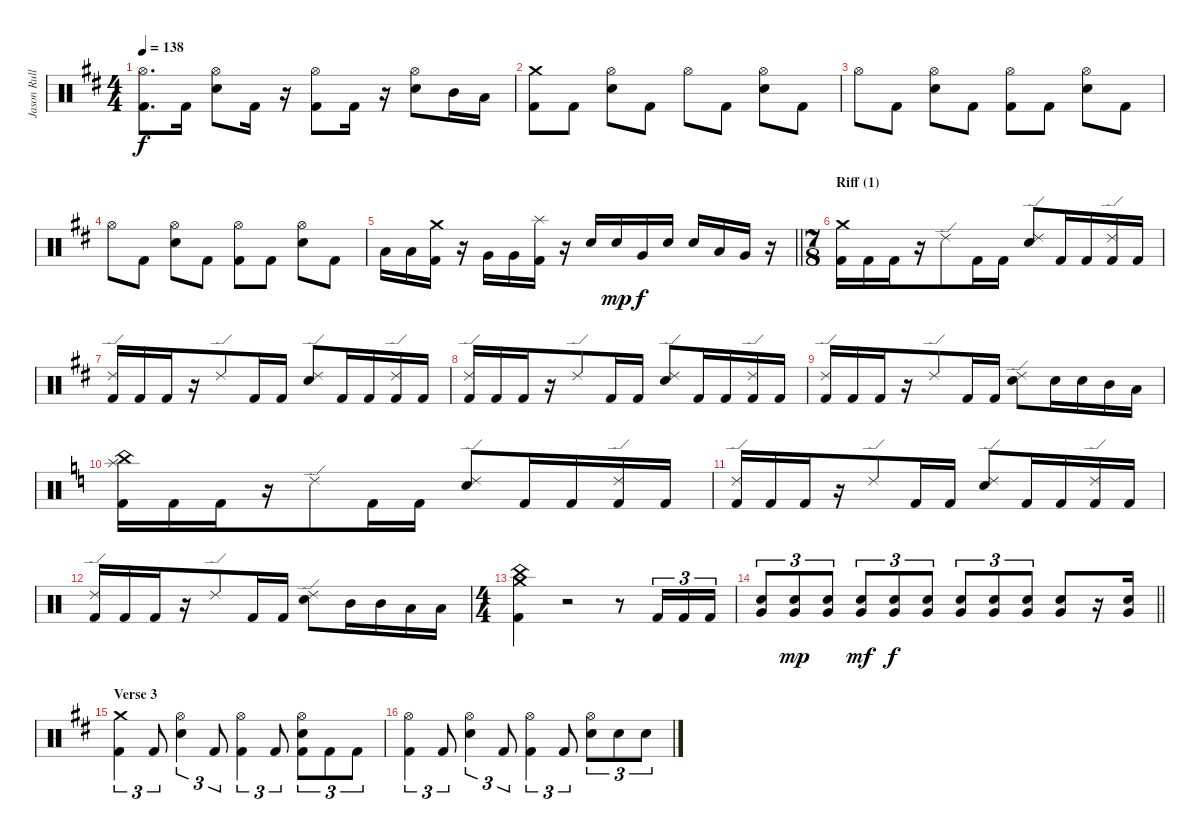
\track ("Jason Rullo (drums)" "Jason Rull") {instrument percussion}
\staff {score}
\articulation defaults
\ts (4 4)
\tempo 138
\clef neutral
\ks bminor
("Hi-Hat (open)" "Kick (hit) 2").8{d dy f} "Kick (hit) 2".16 ("Hi-Hat (open)" "Electric Snare (hit)").8 "Kick (hit) 2".16 r.16 ("Hi-Hat (open)" "Kick (hit) 2").8 "Kick (hit) 2".16 r.16 ("Hi-Hat (open)" "Electric Snare (hit)").8 "Mid Tom (hit)".16 "Low Tom (hit)".16 |
("Crash medium (hit)" "Kick (hit) 2").8 "Kick (hit) 2".8 ("Hi-Hat (open)" "Electric Snare (hit)").8 "Kick (hit) 2".8 "Hi-Hat (open)".8 "Kick (hit) 2".8 ("Hi-Hat (open)" "Electric Snare (hit)").8 "Kick (hit) 2".8 |
"Hi-Hat (open)".8 "Kick (hit) 2".8 ("Hi-Hat (open)" "Electric Snare (hit)").8 "Kick (hit) 2".8 ("Kick (hit) 2" "Hi-Hat (open)").8 "Kick (hit) 2".8 ("Hi-Hat (open)" "Electric Snare (hit)").8 "Kick (hit) 2".8 |
"Hi-Hat (open)".8 "Kick (hit) 2".8 ("Hi-Hat (open)" "Electric Snare (hit)").8 "Kick (hit) 2".8 ("Kick (hit) 2" "Hi-Hat (open)").8 "Kick (hit) 2".8 ("Hi-Hat (open)" "Electric Snare (hit)").8 "Kick (hit) 2".8 |
\barLineRight lightlight "Low Tom (hit)".16 "Low Tom (hit)".16
("Crash medium (hit)" "Kick (hit) 2").16 r.16 "Very Low Tom (hit)".16 "Very Low Tom (hit)".16 ("Splash (hit)" "Kick (hit) 2").16 r.16 "Electric Snare (hit)".16 "Electric Snare (hit)".16{dy mp} "Very Low Tom (hit)".16{dy f} "Electric Snare (hit)".16 "Electric Snare (hit)".16 "Low Tom (hit)".16 "Very Low Tom (hit)".16 r.16 |
\ts (7 8)
\section ("" "Riff (1)")
("Crash medium (hit)" "Kick (hit) 2").16 "Kick (hit) 2".16 "Kick (hit) 2".16 r.16 "Ride (edge) 2".8 "Kick (hit) 2".16 "Kick (hit) 2".16 ("Ride (edge) 2" "Electric Snare (hit)").8 "Kick (hit) 2".16 "Kick (hit) 2".16 ("Ride (edge) 2" "Kick (hit) 2").16 "Kick (hit) 2".16 |
("Ride (edge) 2" "Kick (hit) 2").16 "Kick (hit) 2".16 "Kick (hit) 2".16 r.16 "Ride (edge) 2".8 "Kick (hit) 2".16 "Kick (hit) 2".16 ("Ride (edge) 2" "Electric Snare (hit)").8 "Kick (hit) 2".16 "Kick (hit) 2".16 ("Ride (edge) 2" "Kick (hit) 2").16 "Kick (hit) 2".16 |
("Ride (edge) 2" "Kick (hit) 2").16 "Kick (hit) 2".16 "Kick (hit) 2".16 r.16 "Ride (edge) 2".8 "Kick (hit) 2".16 "Kick (hit) 2".16 ("Ride (edge) 2" "Electric Snare (hit)").8 "Kick (hit) 2".16 "Kick (hit) 2".16 ("Ride (edge) 2" "Kick (hit) 2").16 "Kick (hit) 2".16 |
("Ride (edge) 2" "Kick (hit) 2").16 "Kick (hit) 2".16 "Kick (hit) 2".16 r.16 "Ride (edge) 2".8 "Kick (hit) 2".16 "Kick (hit) 2".16 ("Ride (edge) 2" "Electric Snare (hit)").8 "Electric Snare (hit)".16 "Electric Snare (hit)".16 "Mid Tom (hit)".16 "Low Tom (hit)".16 |
\ks aminor
("Splash (hit)" "China (hit)" "Kick (hit) 2").16 "Kick (hit) 2".16 "Kick (hit) 2".16 r.16 "Ride (edge) 2".8 "Kick (hit) 2".16 "Kick (hit) 2".16 ("Ride (edge) 2" "Electric Snare (hit)").8 "Kick (hit) 2".16 "Kick (hit) 2".16 ("Ride (edge) 2" "Kick (hit) 2").16 "Kick (hit) 2".16 |
("Ride (edge) 2" "Kick (hit) 2").16 "Kick (hit) 2".16 "Kick (hit) 2".16 r.16 "Ride (edge) 2".8 "Kick (hit) 2".16 "Kick (hit) 2".16 ("Ride (edge) 2" "Electric Snare (hit)").8 "Kick (hit) 2".16 "Kick (hit) 2".16 ("Ride (edge) 2" "Kick (hit) 2").16 "Kick (hit) 2".16 |
("Ride (edge) 2" "Kick (hit) 2").16 "Kick (hit) 2".16 "Kick (hit) 2".16 r.16 "Ride (edge) 2".8 "Kick (hit) 2".16 "Kick (hit) 2".16 ("Ride (edge) 2" "Electric Snare (hit)").8 "Mid Tom (hit)".16 "Mid Tom (hit)".16 "Low Tom (hit)".16 "Low Tom (hit)".16 |
\ts (4 4)
("China (hit)" "Crash medium (hit)" "Kick (hit) 2").4 r.2 r.8 "Kick (hit) 2".16{tu (3 2)} "Kick (hit) 2".16{tu (3 2)} "Kick (hit) 2".16{tu (3 2)} |
\barLineRight lightlight
("Very Low Tom (hit)" "Electric Snare (hit)").8{tu (3 2)} ("Very Low Tom (hit)" "Electric Snare (hit)").8{tu (3 2) dy mp} ("Very Low Tom (hit)" "Electric Snare (hit)").8{tu (3 2)} ("Very Low Tom (hit)" "Electric Snare (hit)").8{tu (3 2) dy mf} ("Very Low Tom (hit)" "Electric Snare (hit)").8{tu (3 2) dy f} ("Very Low Tom (hit)" "Electric Snare (hit)").8{tu (3 2)} ("Very Low Tom (hit)" "Electric Snare (hit)").8{tu (3 2)} ("Very Low Tom (hit)" "Electric Snare (hit)").8{tu (3 2)} ("Very Low Tom (hit)" "Electric Snare (hit)").8{tu (3 2)} ("Very Low Tom (hit)" "Electric Snare (hit)").8 r.16 ("Very Low Tom (hit)" "Electric Snare (hit)").16 |
\section ("" "Verse 3")
\ks bminor
("Crash medium (hit)" "Kick (hit) 2").4{tu (3 2)} "Kick (hit) 2".8{tu (3 2)} ("Hi-Hat (open)" "Electric Snare (hit)").4{tu (3 2)} "Kick (hit) 2".8{tu (3 2)} ("Hi-Hat (open)" "Kick (hit) 2").4{tu (3 2)} "Kick (hit) 2".8{tu (3 2)} ("Hi-Hat (open)" "Electric Snare (hit)" "Kick (hit) 2").8{tu (3 2)} "Kick (hit) 2".8{tu (3 2)} "Kick (hit) 2".8{tu (3 2)} |
("Hi-Hat (open)" "Kick (hit) 2").4{tu (3 2)} "Kick (hit) 2".8{tu (3 2)} ("Hi-Hat (open)" "Electric Snare (hit)").4{tu (3 2)} "Kick (hit) 2".8{tu (3 2)} ("Hi-Hat (open)" "Kick (hit) 2").4{tu (3 2)} "Kick (hit) 2".8{tu (3 2)} ("Hi-Hat (open)" "Electric Snare (hit)").8{tu (3 2)} "Electric Snare (hit)".8{tu (3 2)} "Electric Snare (hit)".8{tu (3 2)}
